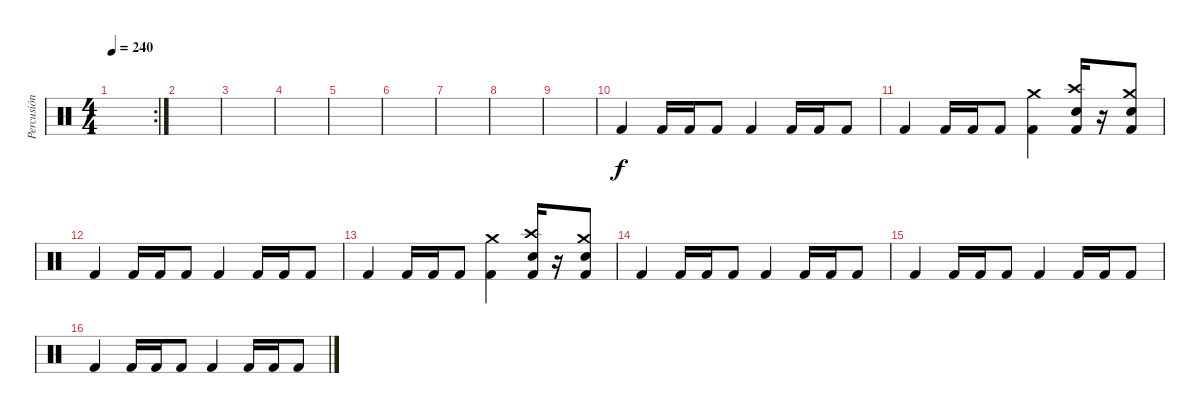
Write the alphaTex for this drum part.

\track ("Percusión" "Percusión") {instrument percussion}
\staff {score}
\articulation defaults
\rc 2
\ts (4 4)
\tempo 240
\clef neutral
\ks c
|
|
|
|
|
|
|
|
|
"Kick (hit) 2".4 "Kick (hit) 2".16 "Kick (hit) 2".16 "Kick (hit) 2".8 "Kick (hit) 2".4 "Kick (hit) 2".16 "Kick (hit) 2".16 "Kick (hit) 2".8 |
"Kick (hit) 2".4 "Kick (hit) 2".16 "Kick (hit) 2".16 "Kick (hit) 2".8 ("Crash medium (hit)" "Kick (hit) 2").4 ("Crash high (hit)" "Electric Snare (hit)" "Kick (hit) 2").16 r.16 ("Crash medium (hit)" "Electric Snare (hit)" "Kick (hit) 2").8 |
"Kick (hit) 2".4 "Kick (hit) 2".16 "Kick (hit) 2".16 "Kick (hit) 2".8 "Kick (hit) 2".4 "Kick (hit) 2".16 "Kick (hit) 2".16 "Kick (hit) 2".8 |
"Kick (hit) 2".4 "Kick (hit) 2".16 "Kick (hit) 2".16 "Kick (hit) 2".8 ("Crash medium (hit)" "Kick (hit) 2").4 ("Crash high (hit)" "Electric Snare (hit)" "Kick (hit) 2").16 r.16 ("Crash medium (hit)" "Electric Snare (hit)" "Kick (hit) 2").8 |
"Kick (hit) 2".4 "Kick (hit) 2".16 "Kick (hit) 2".16 "Kick (hit) 2".8 "Kick (hit) 2".4 "Kick (hit) 2".16 "Kick (hit) 2".16 "Kick (hit) 2".8 |
"Kick (hit) 2".4 "Kick (hit) 2".16 "Kick (hit) 2".16 "Kick (hit) 2".8 "Kick (hit) 2".4 "Kick (hit) 2".16 "Kick (hit) 2".16 "Kick (hit) 2".8 |
"Kick (hit) 2".4 "Kick (hit) 2".16 "Kick (hit) 2".16 "Kick (hit) 2".8 "Kick (hit) 2".4 "Kick (hit) 2".16 "Kick (hit) 2".16 "Kick (hit) 2".8
